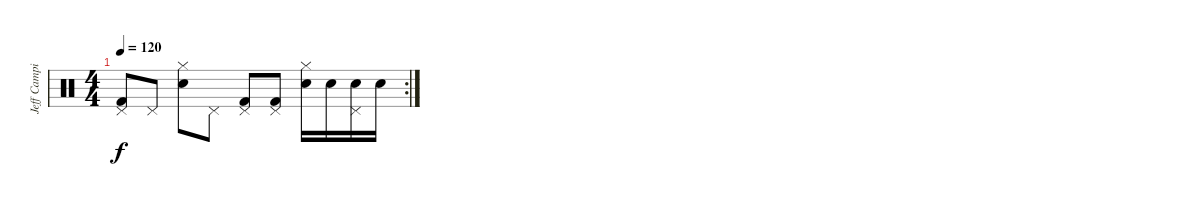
\track ("Jeff Campitelli" "Jeff Campi") {instrument percussion}
\staff {score}
\articulation defaults
\rc 2
\ts (4 4)
\tempo 120
\clef neutral
\ks c
("Pedal Hi-Hat (hit)" "Kick (hit) 2").8{dy f} "Pedal Hi-Hat (hit)".8 ("Hi-Hat (closed)" "Snare (hit) 2").8 "Pedal Hi-Hat (hit)".8 ("Pedal Hi-Hat (hit)" "Kick (hit) 2").8 ("Pedal Hi-Hat (hit)" "Kick (hit) 2").8 ("Hi-Hat (closed)" "Snare (hit) 2").16 "Snare (hit) 2".16 ("Pedal Hi-Hat (hit)" "Snare (hit) 2").16 "Snare (hit) 2".16
